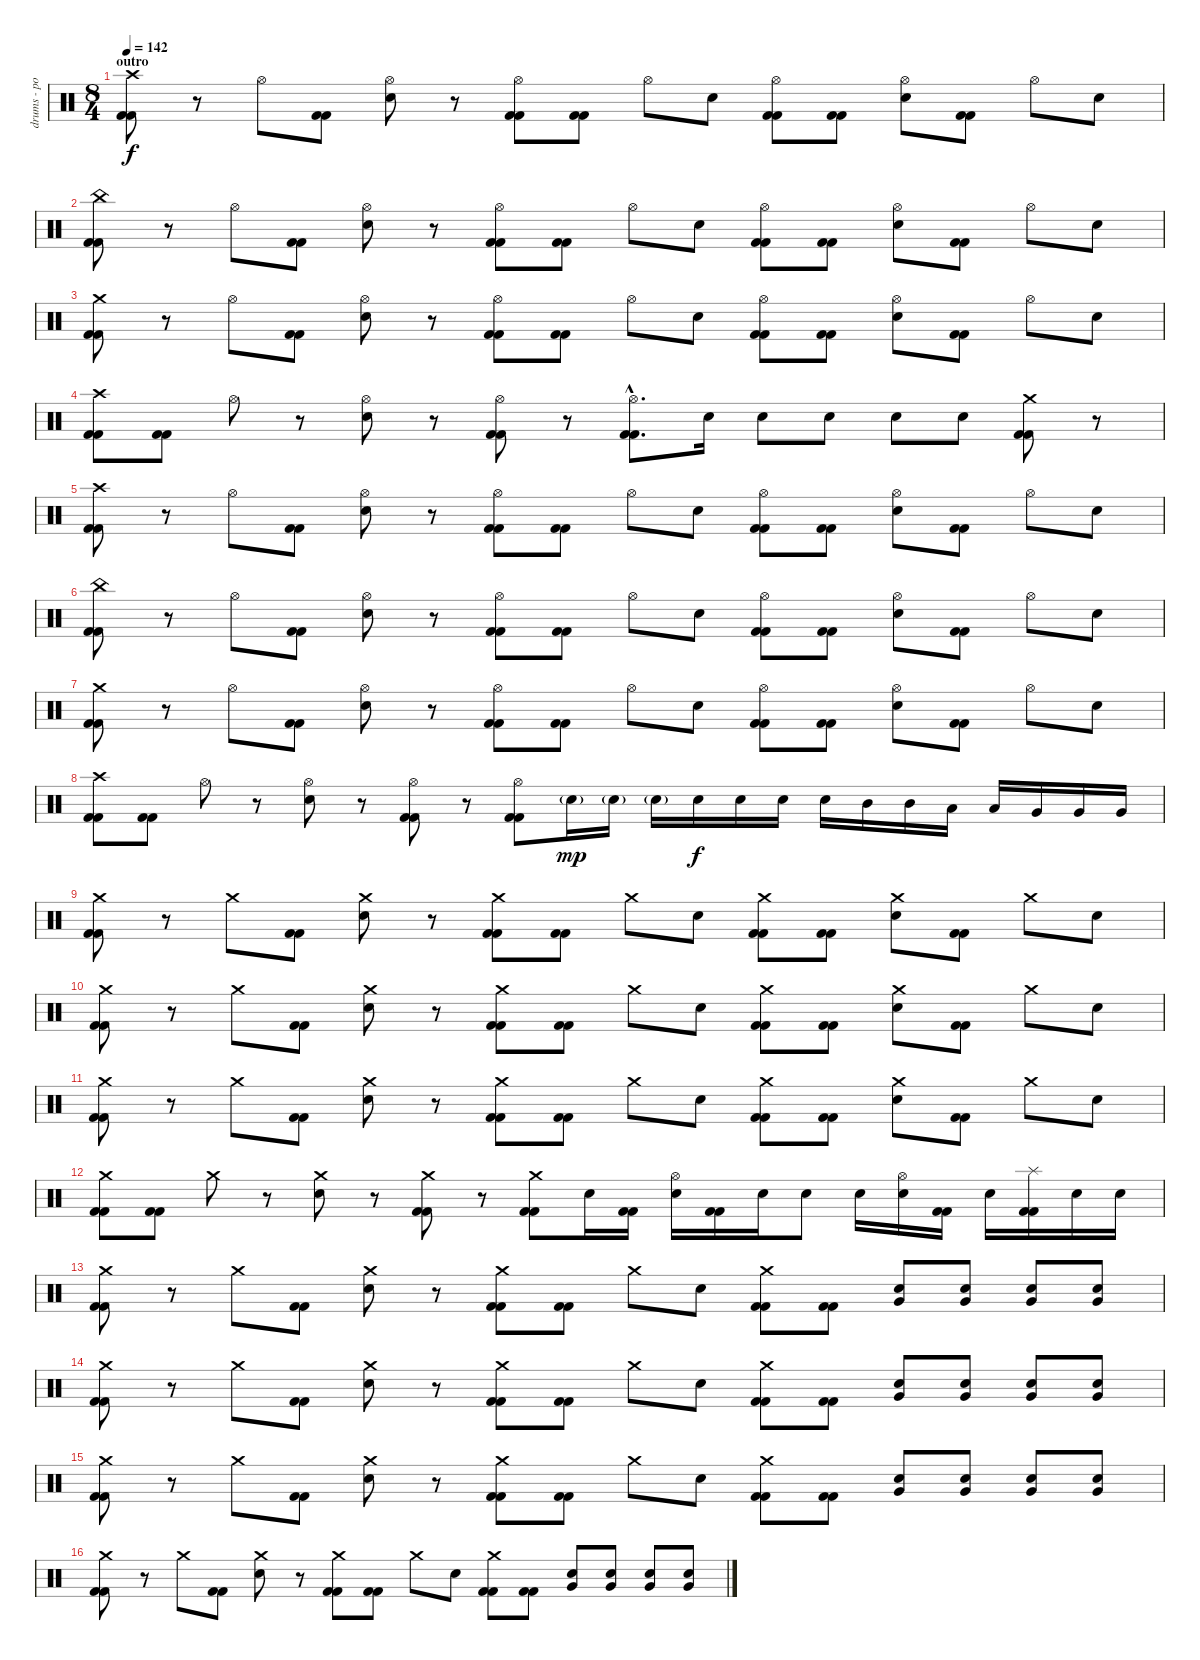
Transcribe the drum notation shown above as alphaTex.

\track ("drums - portnoy" "drums - po") {instrument percussion}
\staff {score}
\articulation defaults
\ts (8 4)
\section ("" "outro")
\tempo 142
\clef neutral
\ks c
("Crash high (hit)" "Kick (hit) 2" "Kick (hit) 2").8{dy f} r.8 "Hi-Hat (open)".8 ("Kick (hit) 2" "Kick (hit) 2").8 ("Hi-Hat (open)" "Electric Snare (hit)").8 r.8 ("Hi-Hat (open)" "Kick (hit) 2" "Kick (hit) 2").8 ("Kick (hit) 2" "Kick (hit) 2").8 "Hi-Hat (open)".8 "Electric Snare (hit)".8 ("Hi-Hat (open)" "Kick (hit) 2" "Kick (hit) 2").8 ("Kick (hit) 2" "Kick (hit) 2").8 ("Hi-Hat (open)" "Electric Snare (hit)").8 ("Kick (hit) 2" "Kick (hit) 2").8 "Hi-Hat (open)".8 "Electric Snare (hit)".8 |
("China (hit)" "Kick (hit) 2" "Kick (hit) 2").8 r.8 "Hi-Hat (open)".8 ("Kick (hit) 2" "Kick (hit) 2").8 ("Hi-Hat (open)" "Electric Snare (hit)").8 r.8 ("Hi-Hat (open)" "Kick (hit) 2" "Kick (hit) 2").8 ("Kick (hit) 2" "Kick (hit) 2").8 "Hi-Hat (open)".8 "Electric Snare (hit)".8 ("Hi-Hat (open)" "Kick (hit) 2" "Kick (hit) 2").8 ("Kick (hit) 2" "Kick (hit) 2").8 ("Hi-Hat (open)" "Electric Snare (hit)").8 ("Kick (hit) 2" "Kick (hit) 2").8 "Hi-Hat (open)".8 "Electric Snare (hit)".8 |
("Crash medium (hit)" "Kick (hit) 2" "Kick (hit) 2").8 r.8 "Hi-Hat (open)".8 ("Kick (hit) 2" "Kick (hit) 2").8 ("Hi-Hat (open)" "Electric Snare (hit)").8 r.8 ("Hi-Hat (open)" "Kick (hit) 2" "Kick (hit) 2").8 ("Kick (hit) 2" "Kick (hit) 2").8 "Hi-Hat (open)".8 "Electric Snare (hit)".8 ("Hi-Hat (open)" "Kick (hit) 2" "Kick (hit) 2").8 ("Kick (hit) 2" "Kick (hit) 2").8 ("Hi-Hat (open)" "Electric Snare (hit)").8 ("Kick (hit) 2" "Kick (hit) 2").8 "Hi-Hat (open)".8 "Electric Snare (hit)".8 |
("Crash high (hit)" "Kick (hit) 2" "Kick (hit) 2").8 ("Kick (hit) 2" "Kick (hit) 2").8 "Hi-Hat (open)".8 r.8 ("Hi-Hat (open)" "Electric Snare (hit)").8 r.8 ("Hi-Hat (open)" "Kick (hit) 2" "Kick (hit) 2").8 r.8 ("Hi-Hat (open)"{hac} "Kick (hit) 2"{hac} "Kick (hit) 2"{hac}).8{d} "Electric Snare (hit)".16 "Electric Snare (hit)".8 "Electric Snare (hit)".8 "Electric Snare (hit)".8 "Electric Snare (hit)".8 ("Crash medium (hit)" "Kick (hit) 2" "Kick (hit) 2").8 r.8 |
("Crash high (hit)" "Kick (hit) 2" "Kick (hit) 2").8 r.8 "Hi-Hat (open)".8 ("Kick (hit) 2" "Kick (hit) 2").8 ("Hi-Hat (open)" "Electric Snare (hit)").8 r.8 ("Hi-Hat (open)" "Kick (hit) 2" "Kick (hit) 2").8 ("Kick (hit) 2" "Kick (hit) 2").8 "Hi-Hat (open)".8 "Electric Snare (hit)".8 ("Hi-Hat (open)" "Kick (hit) 2" "Kick (hit) 2").8 ("Kick (hit) 2" "Kick (hit) 2").8 ("Hi-Hat (open)" "Electric Snare (hit)").8 ("Kick (hit) 2" "Kick (hit) 2").8 "Hi-Hat (open)".8 "Electric Snare (hit)".8 |
("China (hit)" "Kick (hit) 2" "Kick (hit) 2").8 r.8 "Hi-Hat (open)".8 ("Kick (hit) 2" "Kick (hit) 2").8 ("Hi-Hat (open)" "Electric Snare (hit)").8 r.8 ("Hi-Hat (open)" "Kick (hit) 2" "Kick (hit) 2").8 ("Kick (hit) 2" "Kick (hit) 2").8 "Hi-Hat (open)".8 "Electric Snare (hit)".8 ("Hi-Hat (open)" "Kick (hit) 2" "Kick (hit) 2").8 ("Kick (hit) 2" "Kick (hit) 2").8 ("Hi-Hat (open)" "Electric Snare (hit)").8 ("Kick (hit) 2" "Kick (hit) 2").8 "Hi-Hat (open)".8 "Electric Snare (hit)".8 |
("Crash medium (hit)" "Kick (hit) 2" "Kick (hit) 2").8 r.8 "Hi-Hat (open)".8 ("Kick (hit) 2" "Kick (hit) 2").8 ("Hi-Hat (open)" "Electric Snare (hit)").8 r.8 ("Hi-Hat (open)" "Kick (hit) 2" "Kick (hit) 2").8 ("Kick (hit) 2" "Kick (hit) 2").8 "Hi-Hat (open)".8 "Electric Snare (hit)".8 ("Hi-Hat (open)" "Kick (hit) 2" "Kick (hit) 2").8 ("Kick (hit) 2" "Kick (hit) 2").8 ("Hi-Hat (open)" "Electric Snare (hit)").8 ("Kick (hit) 2" "Kick (hit) 2").8 "Hi-Hat (open)".8 "Electric Snare (hit)".8 |
("Crash high (hit)" "Kick (hit) 2" "Kick (hit) 2").8 ("Kick (hit) 2" "Kick (hit) 2").8 "Hi-Hat (open)".8 r.8 ("Hi-Hat (open)" "Electric Snare (hit)").8 r.8 ("Hi-Hat (open)" "Kick (hit) 2" "Kick (hit) 2").8 r.8 ("Hi-Hat (open)" "Kick (hit) 2" "Kick (hit) 2").8 "Electric Snare (hit)"{g}.16{dy mp} "Electric Snare (hit)"{g}.16 "Electric Snare (hit)"{g}.16 "Electric Snare (hit)".16{dy f} "Electric Snare (hit)".16 "Electric Snare (hit)".16 "Electric Snare (hit)".16 "Mid Tom (hit)".16 "Mid Tom (hit)".16 "Low Tom (hit)".16 "Low Tom (hit)".16 "Very Low Tom (hit)".16 "Very Low Tom (hit)".16 "Very Low Tom (hit)".16 |
("Crash medium (hit)" "Kick (hit) 2" "Kick (hit) 2").8 r.8 "Crash medium (hit)".8 ("Kick (hit) 2" "Kick (hit) 2").8 ("Crash medium (hit)" "Electric Snare (hit)").8 r.8 ("Crash medium (hit)" "Kick (hit) 2" "Kick (hit) 2").8 ("Kick (hit) 2" "Kick (hit) 2").8 "Crash medium (hit)".8 "Electric Snare (hit)".8 ("Crash medium (hit)" "Kick (hit) 2" "Kick (hit) 2").8 ("Kick (hit) 2" "Kick (hit) 2").8 ("Crash medium (hit)" "Electric Snare (hit)").8 ("Kick (hit) 2" "Kick (hit) 2").8 "Crash medium (hit)".8 "Electric Snare (hit)".8 |
("Crash medium (hit)" "Kick (hit) 2" "Kick (hit) 2").8 r.8 "Crash medium (hit)".8 ("Kick (hit) 2" "Kick (hit) 2").8 ("Crash medium (hit)" "Electric Snare (hit)").8 r.8 ("Crash medium (hit)" "Kick (hit) 2" "Kick (hit) 2").8 ("Kick (hit) 2" "Kick (hit) 2").8 "Crash medium (hit)".8 "Electric Snare (hit)".8 ("Crash medium (hit)" "Kick (hit) 2" "Kick (hit) 2").8 ("Kick (hit) 2" "Kick (hit) 2").8 ("Crash medium (hit)" "Electric Snare (hit)").8 ("Kick (hit) 2" "Kick (hit) 2").8 "Crash medium (hit)".8 "Electric Snare (hit)".8 |
("Crash medium (hit)" "Kick (hit) 2" "Kick (hit) 2").8 r.8 "Crash medium (hit)".8 ("Kick (hit) 2" "Kick (hit) 2").8 ("Crash medium (hit)" "Electric Snare (hit)").8 r.8 ("Crash medium (hit)" "Kick (hit) 2" "Kick (hit) 2").8 ("Kick (hit) 2" "Kick (hit) 2").8 "Crash medium (hit)".8 "Electric Snare (hit)".8 ("Crash medium (hit)" "Kick (hit) 2" "Kick (hit) 2").8 ("Kick (hit) 2" "Kick (hit) 2").8 ("Crash medium (hit)" "Electric Snare (hit)").8 ("Kick (hit) 2" "Kick (hit) 2").8 "Crash medium (hit)".8 "Electric Snare (hit)".8 |
("Crash medium (hit)" "Kick (hit) 2" "Kick (hit) 2").8 ("Kick (hit) 2" "Kick (hit) 2").8 "Crash medium (hit)".8 r.8 ("Crash medium (hit)" "Electric Snare (hit)").8 r.8 ("Crash medium (hit)" "Kick (hit) 2" "Kick (hit) 2").8 r.8 ("Crash medium (hit)" "Kick (hit) 2" "Kick (hit) 2").8 "Electric Snare (hit)".16 ("Kick (hit) 2" "Kick (hit) 2").16 ("Hi-Hat (open)" "Electric Snare (hit)").16 ("Kick (hit) 2" "Kick (hit) 2").16 "Electric Snare (hit)".16 "Electric Snare (hit)".8 "Electric Snare (hit)".16 ("Hi-Hat (open)" "Electric Snare (hit)").16 ("Kick (hit) 2" "Kick (hit) 2").16 "Electric Snare (hit)".16 ("Splash (hit)" "Kick (hit) 2" "Kick (hit) 2").16 "Electric Snare (hit)".16 "Electric Snare (hit)".16 |
("Crash medium (hit)" "Kick (hit) 2" "Kick (hit) 2").8 r.8 "Crash medium (hit)".8 ("Kick (hit) 2" "Kick (hit) 2").8 ("Crash medium (hit)" "Electric Snare (hit)").8 r.8 ("Crash medium (hit)" "Kick (hit) 2" "Kick (hit) 2").8 ("Kick (hit) 2" "Kick (hit) 2").8 "Crash medium (hit)".8 "Electric Snare (hit)".8 ("Crash medium (hit)" "Kick (hit) 2" "Kick (hit) 2").8 ("Kick (hit) 2" "Kick (hit) 2").8 ("Electric Snare (hit)" "Very Low Tom (hit)").8 ("Electric Snare (hit)" "Very Low Tom (hit)").8 ("Electric Snare (hit)" "Very Low Tom (hit)").8 ("Electric Snare (hit)" "Very Low Tom (hit)").8 |
("Crash medium (hit)" "Kick (hit) 2" "Kick (hit) 2").8 r.8 "Crash medium (hit)".8 ("Kick (hit) 2" "Kick (hit) 2").8 ("Crash medium (hit)" "Electric Snare (hit)").8 r.8 ("Crash medium (hit)" "Kick (hit) 2" "Kick (hit) 2").8 ("Kick (hit) 2" "Kick (hit) 2").8 "Crash medium (hit)".8 "Electric Snare (hit)".8 ("Crash medium (hit)" "Kick (hit) 2" "Kick (hit) 2").8 ("Kick (hit) 2" "Kick (hit) 2").8 ("Electric Snare (hit)" "Very Low Tom (hit)").8 ("Electric Snare (hit)" "Very Low Tom (hit)").8 ("Electric Snare (hit)" "Very Low Tom (hit)").8 ("Electric Snare (hit)" "Very Low Tom (hit)").8 |
("Crash medium (hit)" "Kick (hit) 2" "Kick (hit) 2").8 r.8 "Crash medium (hit)".8 ("Kick (hit) 2" "Kick (hit) 2").8 ("Crash medium (hit)" "Electric Snare (hit)").8 r.8 ("Crash medium (hit)" "Kick (hit) 2" "Kick (hit) 2").8 ("Kick (hit) 2" "Kick (hit) 2").8 "Crash medium (hit)".8 "Electric Snare (hit)".8 ("Crash medium (hit)" "Kick (hit) 2" "Kick (hit) 2").8 ("Kick (hit) 2" "Kick (hit) 2").8 ("Electric Snare (hit)" "Very Low Tom (hit)").8 ("Electric Snare (hit)" "Very Low Tom (hit)").8 ("Electric Snare (hit)" "Very Low Tom (hit)").8 ("Electric Snare (hit)" "Very Low Tom (hit)").8 |
("Crash medium (hit)" "Kick (hit) 2" "Kick (hit) 2").8 r.8 "Crash medium (hit)".8 ("Kick (hit) 2" "Kick (hit) 2").8 ("Crash medium (hit)" "Electric Snare (hit)").8 r.8 ("Crash medium (hit)" "Kick (hit) 2" "Kick (hit) 2").8 ("Kick (hit) 2" "Kick (hit) 2").8 "Crash medium (hit)".8 "Electric Snare (hit)".8 ("Crash medium (hit)" "Kick (hit) 2" "Kick (hit) 2").8 ("Kick (hit) 2" "Kick (hit) 2").8 ("Electric Snare (hit)" "Very Low Tom (hit)").8 ("Electric Snare (hit)" "Very Low Tom (hit)").8 ("Electric Snare (hit)" "Very Low Tom (hit)").8 ("Electric Snare (hit)" "Very Low Tom (hit)").8
